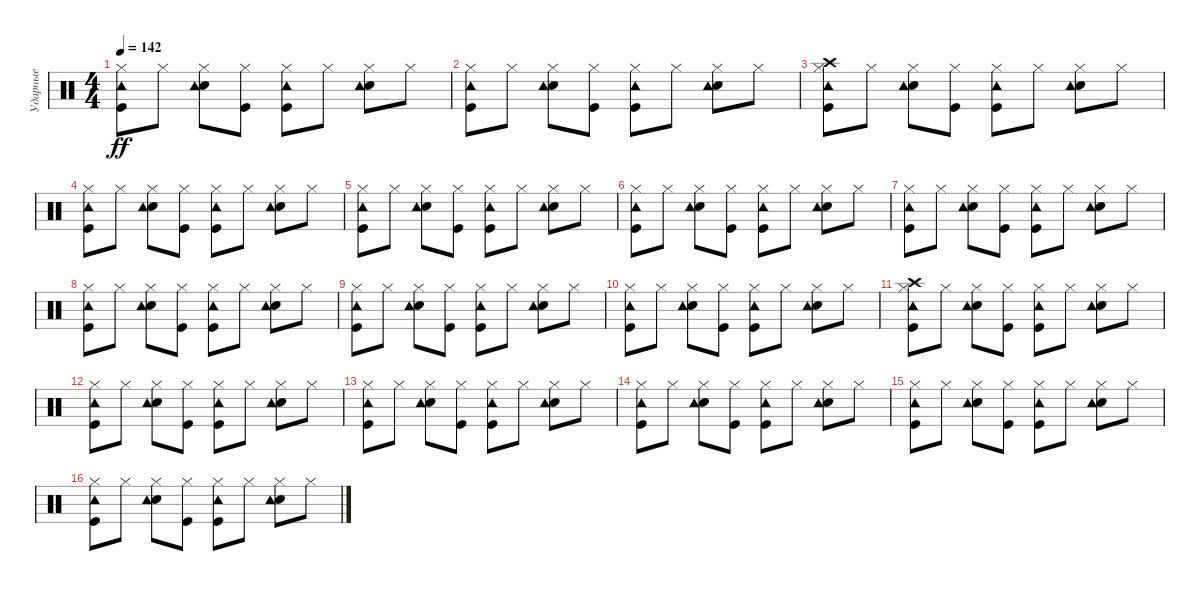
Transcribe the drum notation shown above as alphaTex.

\track ("Ударные" "Ударные") {instrument percussion}
\staff {score}
\articulation defaults
\ts (4 4)
\tempo 142
\clef neutral
\ks c
("Hi-Hat (closed)" "Kick (hit)" "Tambourine (hit)").8{dy ff} "Hi-Hat (closed)".8 ("Hi-Hat (closed)" "Electric Snare (hit)" "Tambourine (hit)").8 ("Hi-Hat (closed)" "Kick (hit)").8 ("Hi-Hat (closed)" "Tambourine (hit)" "Kick (hit)").8 "Hi-Hat (closed)".8 ("Hi-Hat (closed)" "Electric Snare (hit)" "Tambourine (hit)").8 "Hi-Hat (closed)".8 |
("Hi-Hat (closed)" "Kick (hit)" "Tambourine (hit)").8 "Hi-Hat (closed)".8 ("Hi-Hat (closed)" "Electric Snare (hit)" "Tambourine (hit)").8 ("Hi-Hat (closed)" "Kick (hit)").8 ("Hi-Hat (closed)" "Tambourine (hit)" "Kick (hit)").8 "Hi-Hat (closed)".8 ("Hi-Hat (closed)" "Electric Snare (hit)" "Tambourine (hit)").8 "Hi-Hat (closed)".8 |
("Crash high (hit)" "Hi-Hat (closed)" "Kick (hit)" "Tambourine (hit)").8 "Hi-Hat (closed)".8 ("Hi-Hat (closed)" "Electric Snare (hit)" "Tambourine (hit)").8 ("Hi-Hat (closed)" "Kick (hit)").8 ("Hi-Hat (closed)" "Tambourine (hit)" "Kick (hit)").8 "Hi-Hat (closed)".8 ("Hi-Hat (closed)" "Electric Snare (hit)" "Tambourine (hit)").8 "Hi-Hat (closed)".8 |
("Hi-Hat (closed)" "Kick (hit)" "Tambourine (hit)").8 "Hi-Hat (closed)".8 ("Hi-Hat (closed)" "Electric Snare (hit)" "Tambourine (hit)").8 ("Hi-Hat (closed)" "Kick (hit)").8 ("Hi-Hat (closed)" "Tambourine (hit)" "Kick (hit)").8 "Hi-Hat (closed)".8 ("Hi-Hat (closed)" "Electric Snare (hit)" "Tambourine (hit)").8 "Hi-Hat (closed)".8 |
("Hi-Hat (closed)" "Kick (hit)" "Tambourine (hit)").8 "Hi-Hat (closed)".8 ("Hi-Hat (closed)" "Electric Snare (hit)" "Tambourine (hit)").8 ("Hi-Hat (closed)" "Kick (hit)").8 ("Hi-Hat (closed)" "Tambourine (hit)" "Kick (hit)").8 "Hi-Hat (closed)".8 ("Hi-Hat (closed)" "Electric Snare (hit)" "Tambourine (hit)").8 "Hi-Hat (closed)".8 |
("Hi-Hat (closed)" "Kick (hit)" "Tambourine (hit)").8 "Hi-Hat (closed)".8 ("Hi-Hat (closed)" "Electric Snare (hit)" "Tambourine (hit)").8 ("Hi-Hat (closed)" "Kick (hit)").8 ("Hi-Hat (closed)" "Tambourine (hit)" "Kick (hit)").8 "Hi-Hat (closed)".8 ("Hi-Hat (closed)" "Electric Snare (hit)" "Tambourine (hit)").8 "Hi-Hat (closed)".8 |
("Hi-Hat (closed)" "Kick (hit)" "Tambourine (hit)").8 "Hi-Hat (closed)".8 ("Hi-Hat (closed)" "Electric Snare (hit)" "Tambourine (hit)").8 ("Hi-Hat (closed)" "Kick (hit)").8 ("Hi-Hat (closed)" "Tambourine (hit)" "Kick (hit)").8 "Hi-Hat (closed)".8 ("Hi-Hat (closed)" "Electric Snare (hit)" "Tambourine (hit)").8 "Hi-Hat (closed)".8 |
("Hi-Hat (closed)" "Kick (hit)" "Tambourine (hit)").8 "Hi-Hat (closed)".8 ("Hi-Hat (closed)" "Electric Snare (hit)" "Tambourine (hit)").8 ("Hi-Hat (closed)" "Kick (hit)").8 ("Hi-Hat (closed)" "Tambourine (hit)" "Kick (hit)").8 "Hi-Hat (closed)".8 ("Hi-Hat (closed)" "Electric Snare (hit)" "Tambourine (hit)").8 "Hi-Hat (closed)".8 |
("Hi-Hat (closed)" "Kick (hit)" "Tambourine (hit)").8 "Hi-Hat (closed)".8 ("Hi-Hat (closed)" "Electric Snare (hit)" "Tambourine (hit)").8 ("Hi-Hat (closed)" "Kick (hit)").8 ("Hi-Hat (closed)" "Tambourine (hit)" "Kick (hit)").8 "Hi-Hat (closed)".8 ("Hi-Hat (closed)" "Electric Snare (hit)" "Tambourine (hit)").8 "Hi-Hat (closed)".8 |
("Hi-Hat (closed)" "Kick (hit)" "Tambourine (hit)").8 "Hi-Hat (closed)".8 ("Hi-Hat (closed)" "Electric Snare (hit)" "Tambourine (hit)").8 ("Hi-Hat (closed)" "Kick (hit)").8 ("Hi-Hat (closed)" "Tambourine (hit)" "Kick (hit)").8 "Hi-Hat (closed)".8 ("Hi-Hat (closed)" "Electric Snare (hit)" "Tambourine (hit)").8 "Hi-Hat (closed)".8 |
("Crash high (hit)" "Hi-Hat (closed)" "Kick (hit)" "Tambourine (hit)").8 "Hi-Hat (closed)".8 ("Hi-Hat (closed)" "Electric Snare (hit)" "Tambourine (hit)").8 ("Hi-Hat (closed)" "Kick (hit)").8 ("Hi-Hat (closed)" "Tambourine (hit)" "Kick (hit)").8 "Hi-Hat (closed)".8 ("Hi-Hat (closed)" "Electric Snare (hit)" "Tambourine (hit)").8 "Hi-Hat (closed)".8 |
("Hi-Hat (closed)" "Kick (hit)" "Tambourine (hit)").8 "Hi-Hat (closed)".8 ("Hi-Hat (closed)" "Electric Snare (hit)" "Tambourine (hit)").8 ("Hi-Hat (closed)" "Kick (hit)").8 ("Hi-Hat (closed)" "Tambourine (hit)" "Kick (hit)").8 "Hi-Hat (closed)".8 ("Hi-Hat (closed)" "Electric Snare (hit)" "Tambourine (hit)").8 "Hi-Hat (closed)".8 |
("Hi-Hat (closed)" "Kick (hit)" "Tambourine (hit)").8 "Hi-Hat (closed)".8 ("Hi-Hat (closed)" "Electric Snare (hit)" "Tambourine (hit)").8 ("Hi-Hat (closed)" "Kick (hit)").8 ("Hi-Hat (closed)" "Tambourine (hit)" "Kick (hit)").8 "Hi-Hat (closed)".8 ("Hi-Hat (closed)" "Electric Snare (hit)" "Tambourine (hit)").8 "Hi-Hat (closed)".8 |
("Hi-Hat (closed)" "Kick (hit)" "Tambourine (hit)").8 "Hi-Hat (closed)".8 ("Hi-Hat (closed)" "Electric Snare (hit)" "Tambourine (hit)").8 ("Hi-Hat (closed)" "Kick (hit)").8 ("Hi-Hat (closed)" "Tambourine (hit)" "Kick (hit)").8 "Hi-Hat (closed)".8 ("Hi-Hat (closed)" "Electric Snare (hit)" "Tambourine (hit)").8 "Hi-Hat (closed)".8 |
("Hi-Hat (closed)" "Kick (hit)" "Tambourine (hit)").8 "Hi-Hat (closed)".8 ("Hi-Hat (closed)" "Electric Snare (hit)" "Tambourine (hit)").8 ("Hi-Hat (closed)" "Kick (hit)").8 ("Hi-Hat (closed)" "Tambourine (hit)" "Kick (hit)").8 "Hi-Hat (closed)".8 ("Hi-Hat (closed)" "Electric Snare (hit)" "Tambourine (hit)").8 "Hi-Hat (closed)".8 |
("Hi-Hat (closed)" "Kick (hit)" "Tambourine (hit)").8 "Hi-Hat (closed)".8 ("Hi-Hat (closed)" "Electric Snare (hit)" "Tambourine (hit)").8 ("Hi-Hat (closed)" "Kick (hit)").8 ("Hi-Hat (closed)" "Tambourine (hit)" "Kick (hit)").8 "Hi-Hat (closed)".8 ("Hi-Hat (closed)" "Electric Snare (hit)" "Tambourine (hit)").8 "Hi-Hat (closed)".8
